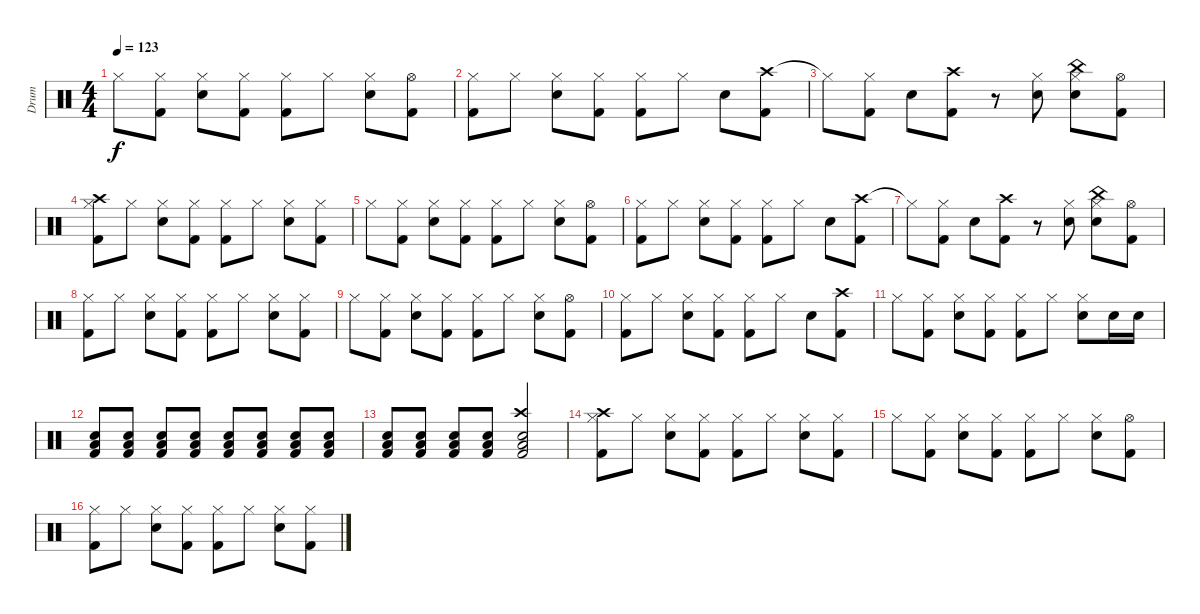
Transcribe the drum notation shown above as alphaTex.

\track ("Drum" "Drum") {instrument percussion}
\staff {score}
\articulation defaults
\ts (4 4)
\tempo 123
\clef neutral
\ks c "Hi-Hat (closed)".8{dy f}
("Hi-Hat (closed)" "Kick (hit) 2").8 ("Hi-Hat (closed)" "Electric Snare (hit)").8 ("Hi-Hat (closed)" "Kick (hit) 2").8 ("Hi-Hat (closed)" "Kick (hit) 2").8 "Hi-Hat (closed)".8 ("Hi-Hat (closed)" "Electric Snare (hit)").8 ("Hi-Hat (open)" "Kick (hit) 2").8 |
("Hi-Hat (closed)" "Kick (hit) 2").8 "Hi-Hat (closed)".8 ("Hi-Hat (closed)" "Electric Snare (hit)").8 ("Hi-Hat (closed)" "Kick (hit) 2").8 ("Hi-Hat (closed)" "Kick (hit) 2").8 "Hi-Hat (closed)".8 "Electric Snare (hit)".8 ("Crash high (hit)" "Kick (hit) 2").8 |
"Hi-Hat (closed)"{t}.8 ("Hi-Hat (closed)" "Kick (hit) 2").8 "Electric Snare (hit)".8 ("Crash high (hit)" "Kick (hit) 2").8 r.8 ("Hi-Hat (closed)" "Electric Snare (hit)").8 ("China (hit)" "Hi-Hat (closed)" "Electric Snare (hit)").8 ("Hi-Hat (open)" "Kick (hit) 2").8 |
("Crash high (hit)" "Hi-Hat (closed)" "Kick (hit) 2").8 "Hi-Hat (closed)".8 ("Hi-Hat (closed)" "Electric Snare (hit)").8 ("Hi-Hat (closed)" "Kick (hit) 2").8 ("Hi-Hat (closed)" "Kick (hit) 2").8 "Hi-Hat (closed)".8 ("Hi-Hat (closed)" "Electric Snare (hit)").8 ("Hi-Hat (closed)" "Kick (hit) 2").8 |
"Hi-Hat (closed)".8 ("Hi-Hat (closed)" "Kick (hit) 2").8 ("Hi-Hat (closed)" "Electric Snare (hit)").8 ("Hi-Hat (closed)" "Kick (hit) 2").8 ("Hi-Hat (closed)" "Kick (hit) 2").8 "Hi-Hat (closed)".8 ("Hi-Hat (closed)" "Electric Snare (hit)").8 ("Hi-Hat (open)" "Kick (hit) 2").8 |
("Hi-Hat (closed)" "Kick (hit) 2").8 "Hi-Hat (closed)".8 ("Hi-Hat (closed)" "Electric Snare (hit)").8 ("Hi-Hat (closed)" "Kick (hit) 2").8 ("Hi-Hat (closed)" "Kick (hit) 2").8 "Hi-Hat (closed)".8 "Electric Snare (hit)".8 ("Crash high (hit)" "Kick (hit) 2").8 |
"Hi-Hat (closed)"{t}.8 ("Hi-Hat (closed)" "Kick (hit) 2").8 "Electric Snare (hit)".8 ("Crash high (hit)" "Kick (hit) 2").8 r.8 ("Hi-Hat (closed)" "Electric Snare (hit)").8 ("China (hit)" "Hi-Hat (closed)" "Electric Snare (hit)").8 ("Hi-Hat (open)" "Kick (hit) 2").8 |
("Hi-Hat (closed)" "Kick (hit) 2").8 "Hi-Hat (closed)".8 ("Hi-Hat (closed)" "Electric Snare (hit)").8 ("Hi-Hat (closed)" "Kick (hit) 2").8 ("Hi-Hat (closed)" "Kick (hit) 2").8 "Hi-Hat (closed)".8 ("Hi-Hat (closed)" "Electric Snare (hit)").8 ("Hi-Hat (closed)" "Kick (hit) 2").8 |
"Hi-Hat (closed)".8 ("Hi-Hat (closed)" "Kick (hit) 2").8 ("Hi-Hat (closed)" "Electric Snare (hit)").8 ("Hi-Hat (closed)" "Kick (hit) 2").8 ("Hi-Hat (closed)" "Kick (hit) 2").8 "Hi-Hat (closed)".8 ("Hi-Hat (closed)" "Electric Snare (hit)").8 ("Hi-Hat (open)" "Kick (hit) 2").8 |
("Hi-Hat (closed)" "Kick (hit) 2").8 "Hi-Hat (closed)".8 ("Hi-Hat (closed)" "Electric Snare (hit)").8 ("Hi-Hat (closed)" "Kick (hit) 2").8 ("Hi-Hat (closed)" "Kick (hit) 2").8 "Hi-Hat (closed)".8 "Electric Snare (hit)".8 ("Crash high (hit)" "Kick (hit) 2").8 |
"Hi-Hat (closed)".8 ("Hi-Hat (closed)" "Kick (hit) 2").8 ("Hi-Hat (closed)" "Electric Snare (hit)").8 ("Hi-Hat (closed)" "Kick (hit) 2").8 ("Hi-Hat (closed)" "Kick (hit) 2").8 "Hi-Hat (closed)".8 ("Hi-Hat (closed)" "Electric Snare (hit)").8 "Electric Snare (hit)".16 "Electric Snare (hit)".16 |
("Low Floor Tom (hit)" "Electric Snare (hit)" "Kick (hit) 2").8 ("Low Floor Tom (hit)" "Electric Snare (hit)" "Kick (hit) 2").8 ("Low Floor Tom (hit)" "Electric Snare (hit)" "Kick (hit) 2").8 ("Low Floor Tom (hit)" "Electric Snare (hit)" "Kick (hit) 2").8 ("Low Floor Tom (hit)" "Electric Snare (hit)" "Kick (hit) 2").8 ("Low Floor Tom (hit)" "Electric Snare (hit)" "Kick (hit) 2").8 ("Low Floor Tom (hit)" "Electric Snare (hit)" "Kick (hit) 2").8 ("Low Floor Tom (hit)" "Electric Snare (hit)" "Kick (hit) 2").8 |
("Low Floor Tom (hit)" "Electric Snare (hit)" "Kick (hit) 2").8 ("Low Floor Tom (hit)" "Electric Snare (hit)" "Kick (hit) 2").8 ("Low Floor Tom (hit)" "Electric Snare (hit)" "Kick (hit) 2").8 ("Low Floor Tom (hit)" "Electric Snare (hit)" "Kick (hit) 2").8 ("Crash high (hit)" "Low Floor Tom (hit)" "Electric Snare (hit)" "Kick (hit) 2").2 |
("Crash high (hit)" "Hi-Hat (closed)" "Kick (hit) 2").8 "Hi-Hat (closed)".8 ("Hi-Hat (closed)" "Electric Snare (hit)").8 ("Hi-Hat (closed)" "Kick (hit) 2").8 ("Hi-Hat (closed)" "Kick (hit) 2").8 "Hi-Hat (closed)".8 ("Hi-Hat (closed)" "Electric Snare (hit)").8 ("Hi-Hat (closed)" "Kick (hit) 2").8 |
"Hi-Hat (closed)".8 ("Hi-Hat (closed)" "Kick (hit) 2").8 ("Hi-Hat (closed)" "Electric Snare (hit)").8 ("Hi-Hat (closed)" "Kick (hit) 2").8 ("Hi-Hat (closed)" "Kick (hit) 2").8 "Hi-Hat (closed)".8 ("Hi-Hat (closed)" "Electric Snare (hit)").8 ("Hi-Hat (open)" "Kick (hit) 2").8 |
("Hi-Hat (closed)" "Kick (hit) 2").8 "Hi-Hat (closed)".8 ("Hi-Hat (closed)" "Electric Snare (hit)").8 ("Hi-Hat (closed)" "Kick (hit) 2").8 ("Hi-Hat (closed)" "Kick (hit) 2").8 "Hi-Hat (closed)".8 ("Hi-Hat (closed)" "Electric Snare (hit)").8 ("Hi-Hat (closed)" "Kick (hit) 2").8
